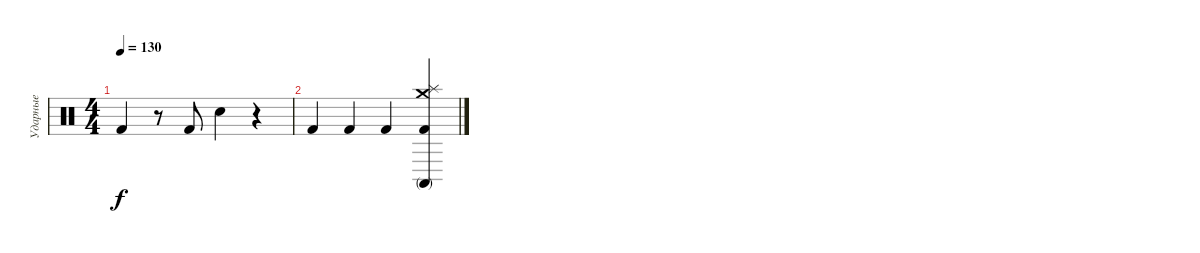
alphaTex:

\track ("Ударные" "Ударные") {instrument percussion}
\staff {score}
\articulation defaults
\ts (4 4)
\tempo 130
\clef neutral
\ks c "Kick (hit) 2".4{dy f}
r.8 "Kick (hit) 2".8 "Electric Snare (hit)".4 r.4 |
"Kick (hit) 2".4 "Kick (hit) 2".4 "Kick (hit) 2".4 ("Crash medium (hit)" "Splash (hit)" "Conga high (mute)" "Kick (hit) 2").4
